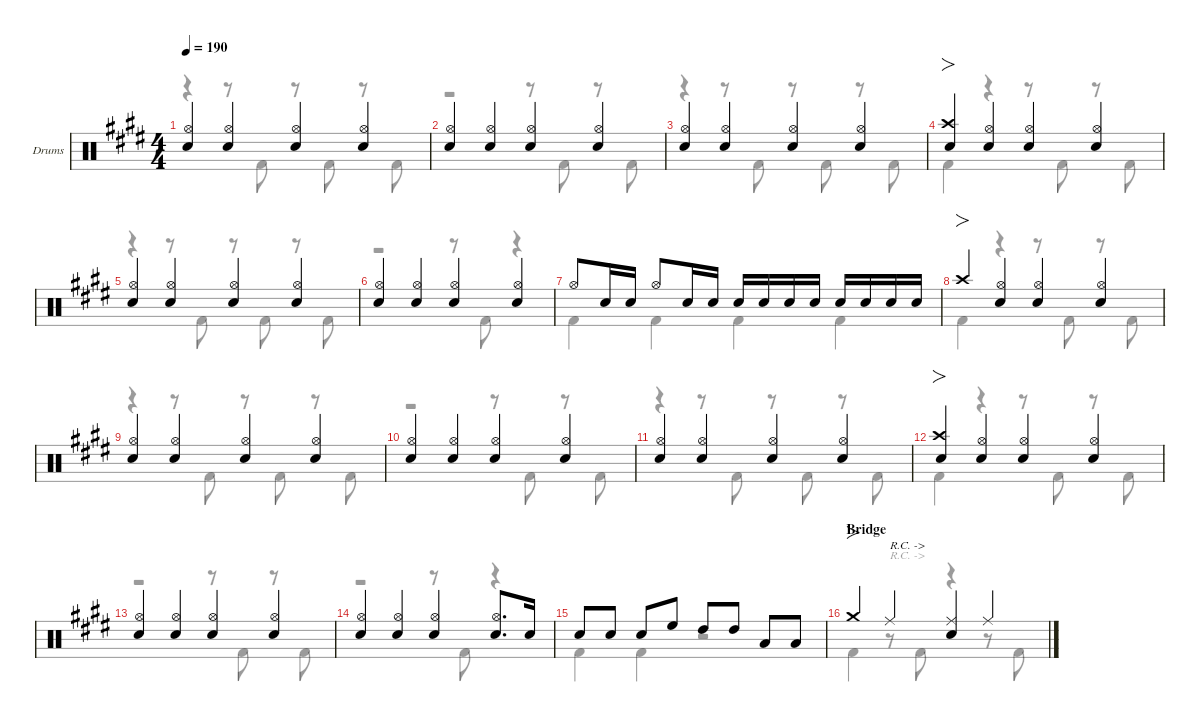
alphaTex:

\defaultSystemsLayout 4
\hideDynamics
\bracketExtendMode nobrackets
\firstSystemTrackNameOrientation horizontal
\track ("Drums" "Drums") {defaultSystemsLayout 4 instrument percussion}
\staff {score}
\articulation defaults
\voice
\ts (4 4)
\tempo 190
\clef neutral
\scale
0.244132
\ks e
("Snare (hit) 2"{acc forcenatural} "Hi-Hat (open)"{acc forcenatural}).4{dy f beam Up} ("Snare (hit) 2"{acc forcenatural} "Hi-Hat (open)"{acc forcenatural}).4{beam Up} ("Snare (hit) 2"{acc forcenatural} "Hi-Hat (open)"{acc forcenatural}).4{beam Up} ("Snare (hit) 2"{acc forcenatural} "Hi-Hat (open)"{acc forcenatural}).4{beam Up} |
\scale
0.244132 ("Snare (hit) 2"{acc forcenatural} "Hi-Hat (open)"{acc forcenatural}).4{beam Up} ("Snare (hit) 2"{acc forcenatural} "Hi-Hat (open)"{acc forcenatural}).4{beam Up} ("Snare (hit) 2"{acc forcenatural} "Hi-Hat (open)"{acc forcenatural}).4{beam Up} ("Snare (hit) 2"{acc forcenatural} "Hi-Hat (open)"{acc forcenatural}).4{beam Up} |
\scale
0.244132 ("Snare (hit) 2"{acc forcenatural} "Hi-Hat (open)"{acc forcenatural}).4{beam Up} ("Snare (hit) 2"{acc forcenatural} "Hi-Hat (open)"{acc forcenatural}).4{beam Up} ("Snare (hit) 2"{acc forcenatural} "Hi-Hat (open)"{acc forcenatural}).4{beam Up} ("Snare (hit) 2"{acc forcenatural} "Hi-Hat (open)"{acc forcenatural}).4{beam Up} |
\scale
0.267605 ("Crash high (hit)"{acc forcenatural} "Snare (hit) 2"{acc forcenatural}).4{fo beam Up} ("Snare (hit) 2"{acc forcenatural} "Hi-Hat (open)"{acc forcenatural}).4{beam Up} ("Snare (hit) 2"{acc forcenatural} "Hi-Hat (open)"{acc forcenatural}).4{beam Up} ("Snare (hit) 2"{acc forcenatural} "Hi-Hat (open)"{acc forcenatural}).4{beam Up} |
\scale
0.244132 ("Snare (hit) 2"{acc forcenatural} "Hi-Hat (open)"{acc forcenatural}).4{beam Up} ("Snare (hit) 2"{acc forcenatural} "Hi-Hat (open)"{acc forcenatural}).4{beam Up} ("Snare (hit) 2"{acc forcenatural} "Hi-Hat (open)"{acc forcenatural}).4{beam Up} ("Snare (hit) 2"{acc forcenatural} "Hi-Hat (open)"{acc forcenatural}).4{beam Up} |
\scale
0.244132 ("Snare (hit) 2"{acc forcenatural} "Hi-Hat (open)"{acc forcenatural}).4{beam Up} ("Snare (hit) 2"{acc forcenatural} "Hi-Hat (open)"{acc forcenatural}).4{beam Up} ("Snare (hit) 2"{acc forcenatural} "Hi-Hat (open)"{acc forcenatural}).4{beam Up} ("Snare (hit) 2"{acc forcenatural} "Hi-Hat (open)"{acc forcenatural}).4{beam Up} |
\scale
0.244132 "Hi-Hat (open)"{acc forcenatural}.8{beam Up} "Snare (hit) 2"{acc forcenatural}.16{dy mf beam Up} "Snare (hit) 2"{acc forcenatural}.16{dy mp beam Up beam split} "Hi-Hat (open)"{acc forcenatural}.8{dy f beam Up} "Snare (hit) 2"{acc forcenatural}.16{dy mf beam Up} "Snare (hit) 2"{acc forcenatural}.16{dy mp beam Up beam split} "Snare (hit) 2"{acc forcenatural}.16{dy f beam Up} "Snare (hit) 2"{acc forcenatural}.16{dy mp beam Up} "Snare (hit) 2"{acc forcenatural}.16{dy mf beam Up} "Snare (hit) 2"{acc forcenatural}.16{dy mp beam Up beam split} "Snare (hit) 2"{acc forcenatural}.16{dy f beam Up} "Snare (hit) 2"{acc forcenatural}.16{dy mp beam Up} "Snare (hit) 2"{acc forcenatural}.16{dy mf beam Up} "Snare (hit) 2"{acc forcenatural}.16{dy mp beam Up beam split} |
\scale
0.267605 "Crash high (hit)"{acc forcenatural}.4{fo dy f beam Up} ("Snare (hit) 2"{acc forcenatural} "Hi-Hat (open)"{acc forcenatural}).4{beam Up} ("Snare (hit) 2"{acc forcenatural} "Hi-Hat (open)"{acc forcenatural}).4{beam Up} ("Snare (hit) 2"{acc forcenatural} "Hi-Hat (open)"{acc forcenatural}).4{beam Up} |
\scale
0.244132 ("Snare (hit) 2"{acc forcenatural} "Hi-Hat (open)"{acc forcenatural}).4{beam Up} ("Snare (hit) 2"{acc forcenatural} "Hi-Hat (open)"{acc forcenatural}).4{beam Up} ("Snare (hit) 2"{acc forcenatural} "Hi-Hat (open)"{acc forcenatural}).4{beam Up} ("Snare (hit) 2"{acc forcenatural} "Hi-Hat (open)"{acc forcenatural}).4{beam Up} |
\scale
0.243803 ("Snare (hit) 2"{acc forcenatural} "Hi-Hat (open)"{acc forcenatural}).4{beam Up} ("Snare (hit) 2"{acc forcenatural} "Hi-Hat (open)"{acc forcenatural}).4{beam Up} ("Snare (hit) 2"{acc forcenatural} "Hi-Hat (open)"{acc forcenatural}).4{beam Up} ("Snare (hit) 2"{acc forcenatural} "Hi-Hat (open)"{acc forcenatural}).4{beam Up} |
\scale
0.244461 ("Snare (hit) 2"{acc forcenatural} "Hi-Hat (open)"{acc forcenatural}).4{beam Up} ("Snare (hit) 2"{acc forcenatural} "Hi-Hat (open)"{acc forcenatural}).4{beam Up} ("Snare (hit) 2"{acc forcenatural} "Hi-Hat (open)"{acc forcenatural}).4{beam Up} ("Snare (hit) 2"{acc forcenatural} "Hi-Hat (open)"{acc forcenatural}).4{beam Up} |
\scale
0.267605 ("Crash high (hit)"{acc forcenatural} "Snare (hit) 2"{acc forcenatural}).4{fo beam Up} ("Snare (hit) 2"{acc forcenatural} "Hi-Hat (open)"{acc forcenatural}).4{beam Up} ("Snare (hit) 2"{acc forcenatural} "Hi-Hat (open)"{acc forcenatural}).4{beam Up} ("Snare (hit) 2"{acc forcenatural} "Hi-Hat (open)"{acc forcenatural}).4{beam Up} |
\scale
0.244132 ("Snare (hit) 2"{acc forcenatural} "Hi-Hat (open)"{acc forcenatural}).4{beam Up} ("Snare (hit) 2"{acc forcenatural} "Hi-Hat (open)"{acc forcenatural}).4{beam Up} ("Snare (hit) 2"{acc forcenatural} "Hi-Hat (open)"{acc forcenatural}).4{beam Up} ("Snare (hit) 2"{acc forcenatural} "Hi-Hat (open)"{acc forcenatural}).4{beam Up} |
\scale
0.244131 ("Snare (hit) 2"{acc forcenatural} "Hi-Hat (open)"{acc forcenatural}).4{beam Up} ("Snare (hit) 2"{acc forcenatural} "Hi-Hat (open)"{acc forcenatural}).4{beam Up} ("Snare (hit) 2"{acc forcenatural} "Hi-Hat (open)"{acc forcenatural}).4{beam Up} ("Snare (hit) 2"{acc forcenatural} "Hi-Hat (open)"{acc forcenatural}).8{d beam Up} "Snare (hit) 2"{acc forcenatural}.16{dy mf beam Up} |
\scale
0.244132 "Snare (hit) 2"{acc forcenatural}.8{dy f beam Up} "Snare (hit) 2"{acc forcenatural}.8{beam Up} "Snare (hit) 2"{acc forcenatural}.8{beam Up} "High Floor Tom (hit)"{acc forcenatural}.8{beam Up} "High Tom (hit)"{acc forcenatural}.8{beam Up} "High Tom (hit)"{acc forcenatural}.8{beam Up} "Low Tom (hit)"{acc forcenatural}.8{beam Up} "Low Tom (hit)"{acc forcenatural}.8{beam Up} |
\section ("" "Bridge")
\scale
0.2665 "Crash medium (hit)"{acc forcenatural}.4{fo beam Up} "Ride (middle)"{acc forcenatural}.4{txt "R.C. ->" beam Up} ("Ride (middle)"{acc forcenatural} "Snare (hit) 2"{acc forcenatural}).4{beam Up} "Ride (middle)"{acc forcenatural}.4{beam Up}
\voice
\clef neutral
\ottava regular
\simile none
\scale
0.244132
\ks e
r.4{dy f beam Down} r.8{beam Down} "Kick (hit) 2"{acc forcenatural}.8{beam Down} r.8{beam Down} "Kick (hit) 2"{acc forcenatural}.8{beam Down} r.8{beam Down} "Kick (hit) 2"{acc forcenatural}.8{beam Down} |
\scale
0.244132 r.2{beam Down} r.8{beam Down} "Kick (hit) 2"{acc forcenatural}.8{beam Down} r.8{beam Down} "Kick (hit) 2"{acc forcenatural}.8{beam Down} |
\scale
0.244132 r.4{beam Down} r.8{beam Down} "Kick (hit) 2"{acc forcenatural}.8{beam Down} r.8{beam Down} "Kick (hit) 2"{acc forcenatural}.8{beam Down} r.8{beam Down} "Kick (hit) 2"{acc forcenatural}.8{beam Down} |
\scale
0.267605 "Kick (hit) 2"{acc forcenatural}.4{beam Down} r.4{beam Down} r.8{beam Down} "Kick (hit) 2"{acc forcenatural}.8{beam Down} r.8{beam Down} "Kick (hit) 2"{acc forcenatural}.8{beam Down} |
\scale
0.244132 r.4{beam Down} r.8{beam Down} "Kick (hit) 2"{acc forcenatural}.8{beam Down} r.8{beam Down} "Kick (hit) 2"{acc forcenatural}.8{beam Down} r.8{beam Down} "Kick (hit) 2"{acc forcenatural}.8{beam Down} |
\scale
0.244132 r.2{beam Down} r.8{beam Down} "Kick (hit) 2"{acc forcenatural}.8{beam Down} r.4{beam Down} |
\scale
0.244132 "Kick (hit) 2"{acc forcenatural}.4{beam Down} "Kick (hit) 2"{acc forcenatural}.4{beam Down} "Kick (hit) 2"{acc forcenatural}.4{beam Down} "Kick (hit) 2"{acc forcenatural}.4{beam Down} |
\scale
0.267605 "Kick (hit) 2"{acc forcenatural}.4{beam Down} r.4{beam Down} r.8{beam Down} "Kick (hit) 2"{acc forcenatural}.8{beam Down} r.8{beam Down} "Kick (hit) 2"{acc forcenatural}.8{beam Down} |
\scale
0.244132 r.4{beam Down} r.8{beam Down} "Kick (hit) 2"{acc forcenatural}.8{beam Down} r.8{beam Down} "Kick (hit) 2"{acc forcenatural}.8{beam Down} r.8{beam Down} "Kick (hit) 2"{acc forcenatural}.8{beam Down} |
\scale
0.243803 r.2{beam Down} r.8{beam Down} "Kick (hit) 2"{acc forcenatural}.8{beam Down} r.8{beam Down} "Kick (hit) 2"{acc forcenatural}.8{beam Down} |
\scale
0.244461 r.4{beam Down} r.8{beam Down} "Kick (hit) 2"{acc forcenatural}.8{beam Down} r.8{beam Down} "Kick (hit) 2"{acc forcenatural}.8{beam Down} r.8{beam Down} "Kick (hit) 2"{acc forcenatural}.8{beam Down} |
\scale
0.267605 "Kick (hit) 2"{acc forcenatural}.4{beam Down} r.4{beam Down} r.8{beam Down} "Kick (hit) 2"{acc forcenatural}.8{beam Down} r.8{beam Down} "Kick (hit) 2"{acc forcenatural}.8{beam Down} |
\scale
0.244132 r.2{beam Down} r.8{beam Down} "Kick (hit) 2"{acc forcenatural}.8{beam Down} r.8{beam Down} "Kick (hit) 2"{acc forcenatural}.8{beam Down} |
\scale
0.244131 r.2{beam Down} r.8{beam Down} "Kick (hit) 2"{acc forcenatural}.8{beam Down} r.4{beam Down} |
\scale
0.244132 "Kick (hit) 2"{acc forcenatural}.4{beam Down} "Kick (hit) 2"{acc forcenatural}.4{beam Down} r.2{beam Down} |
\scale
0.2665 "Kick (hit) 2"{acc forcenatural}.4{beam Down} r.8{txt "R.C. ->" beam Down} "Kick (hit) 2"{acc forcenatural}.8{beam Down} r.4{beam Down} r.8{beam Down} "Kick (hit) 2"{acc forcenatural}.8{beam Down}
